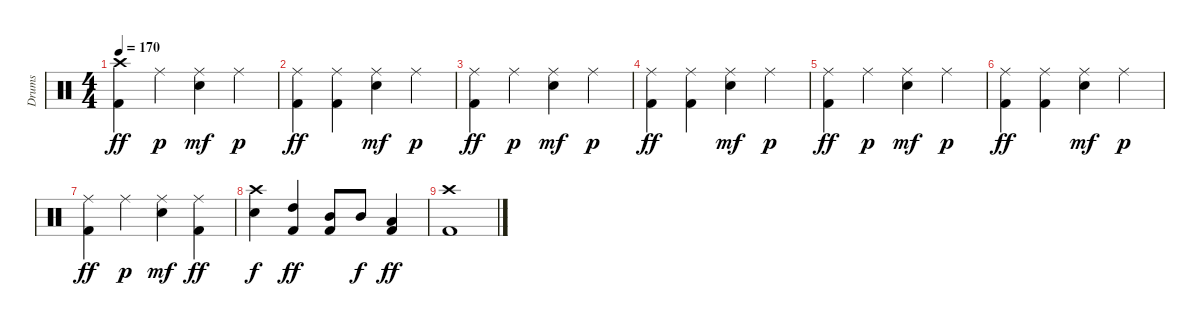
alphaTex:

\track ("Drums" "Drums") {instrument percussion}
\staff {score}
\articulation defaults
\ts (4 4)
\tempo 170
\clef neutral
\ks c
("Crash high (hit)" "Kick (hit) 2").4{dy ff} "Ride (middle)".4{dy p} ("Ride (middle)" "Electric Snare (hit)").4{dy mf} "Ride (middle)".4{dy p} |
("Ride (middle)" "Kick (hit) 2").4{dy ff} ("Ride (middle)" "Kick (hit) 2").4 ("Ride (middle)" "Electric Snare (hit)").4{dy mf} "Ride (middle)".4{dy p} |
("Ride (middle)" "Kick (hit) 2").4{dy ff} "Ride (middle)".4{dy p} ("Ride (middle)" "Electric Snare (hit)").4{dy mf} "Ride (middle)".4{dy p} |
("Ride (middle)" "Kick (hit) 2").4{dy ff} ("Ride (middle)" "Kick (hit) 2").4 ("Ride (middle)" "Electric Snare (hit)").4{dy mf} "Ride (middle)".4{dy p} |
("Ride (middle)" "Kick (hit) 2").4{dy ff} "Ride (middle)".4{dy p} ("Ride (middle)" "Electric Snare (hit)").4{dy mf} "Ride (middle)".4{dy p} |
("Ride (middle)" "Kick (hit) 2").4{dy ff} ("Ride (middle)" "Kick (hit) 2").4 ("Ride (middle)" "Electric Snare (hit)").4{dy mf} "Ride (middle)".4{dy p} |
("Ride (middle)" "Kick (hit) 2").4{dy ff} "Ride (middle)".4{dy p} ("Ride (middle)" "Electric Snare (hit)").4{dy mf} ("Ride (middle)" "Kick (hit) 2").4{dy ff} |
("Crash high (hit)" "Electric Snare (hit)").4{dy f} ("High Tom (hit)" "Kick (hit) 2").4{dy ff} ("Mid Tom (hit)" "Kick (hit) 2").8 "Mid Tom (hit)".8{dy f} ("Low Tom (hit)" "Kick (hit) 2").4{dy ff} |
\section ("" "")
("Crash high (hit)" "Kick (hit) 2").1
